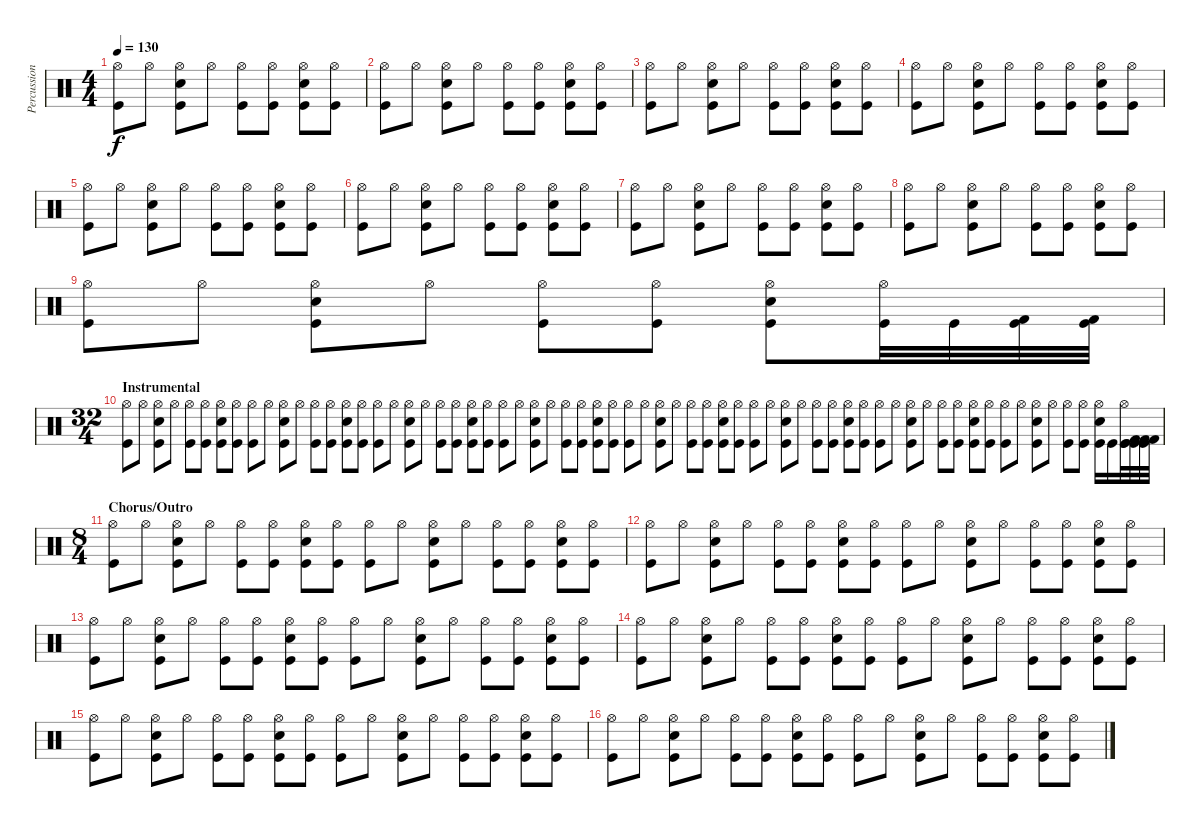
\track ("Percussion" "Percussion") {instrument percussion}
\staff {score}
\articulation defaults
\ts (4 4)
\tempo 130
\clef neutral
\ks c
("Hi-Hat (open)" "Kick (hit)").8{dy f volume 16} "Hi-Hat (open)".8{volume 14} ("Hi-Hat (open)" "Kick (hit)" "Snare (hit) 2").8 "Hi-Hat (open)".8 ("Hi-Hat (open)" "Kick (hit)").8{volume 16} ("Hi-Hat (open)" "Kick (hit)").8{volume 14} ("Hi-Hat (open)" "Kick (hit)" "Snare (hit) 2").8 ("Hi-Hat (open)" "Kick (hit)").8 |
("Hi-Hat (open)" "Kick (hit)").8{volume 16} "Hi-Hat (open)".8{volume 14} ("Hi-Hat (open)" "Kick (hit)" "Snare (hit) 2").8 "Hi-Hat (open)".8 ("Hi-Hat (open)" "Kick (hit)").8{volume 16} ("Hi-Hat (open)" "Kick (hit)").8{volume 14} ("Hi-Hat (open)" "Kick (hit)" "Snare (hit) 2").8 ("Hi-Hat (open)" "Kick (hit)").8 |
("Hi-Hat (open)" "Kick (hit)").8{volume 16} "Hi-Hat (open)".8{volume 14} ("Hi-Hat (open)" "Kick (hit)" "Snare (hit) 2").8 "Hi-Hat (open)".8 ("Hi-Hat (open)" "Kick (hit)").8{volume 16} ("Hi-Hat (open)" "Kick (hit)").8{volume 14} ("Hi-Hat (open)" "Kick (hit)" "Snare (hit) 2").8 ("Hi-Hat (open)" "Kick (hit)").8 |
("Hi-Hat (open)" "Kick (hit)").8{volume 16} "Hi-Hat (open)".8{volume 14} ("Hi-Hat (open)" "Kick (hit)" "Snare (hit) 2").8 "Hi-Hat (open)".8 ("Hi-Hat (open)" "Kick (hit)").8{volume 16} ("Hi-Hat (open)" "Kick (hit)").8{volume 14} ("Hi-Hat (open)" "Kick (hit)" "Snare (hit) 2").8 ("Hi-Hat (open)" "Kick (hit)").8 |
("Hi-Hat (open)" "Kick (hit)").8{volume 16} "Hi-Hat (open)".8{volume 14} ("Hi-Hat (open)" "Kick (hit)" "Snare (hit) 2").8 "Hi-Hat (open)".8 ("Hi-Hat (open)" "Kick (hit)").8{volume 16} ("Hi-Hat (open)" "Kick (hit)").8{volume 14} ("Hi-Hat (open)" "Kick (hit)" "Snare (hit) 2").8 ("Hi-Hat (open)" "Kick (hit)").8 |
("Hi-Hat (open)" "Kick (hit)").8{volume 16} "Hi-Hat (open)".8{volume 14} ("Hi-Hat (open)" "Kick (hit)" "Snare (hit) 2").8 "Hi-Hat (open)".8 ("Hi-Hat (open)" "Kick (hit)").8{volume 16} ("Hi-Hat (open)" "Kick (hit)").8{volume 14} ("Hi-Hat (open)" "Kick (hit)" "Snare (hit) 2").8 ("Hi-Hat (open)" "Kick (hit)").8 |
("Hi-Hat (open)" "Kick (hit)").8{volume 16} "Hi-Hat (open)".8{volume 14} ("Hi-Hat (open)" "Kick (hit)" "Snare (hit) 2").8 "Hi-Hat (open)".8 ("Hi-Hat (open)" "Kick (hit)").8{volume 16} ("Hi-Hat (open)" "Kick (hit)").8{volume 14} ("Hi-Hat (open)" "Kick (hit)" "Snare (hit) 2").8 ("Hi-Hat (open)" "Kick (hit)").8 |
("Hi-Hat (open)" "Kick (hit)").8{volume 16} "Hi-Hat (open)".8{volume 14} ("Hi-Hat (open)" "Kick (hit)" "Snare (hit) 2").8 "Hi-Hat (open)".8 ("Hi-Hat (open)" "Kick (hit)").8{volume 16} ("Hi-Hat (open)" "Kick (hit)").8{volume 14} ("Hi-Hat (open)" "Kick (hit)" "Snare (hit) 2").8 ("Hi-Hat (open)" "Kick (hit)").8 |
("Hi-Hat (open)" "Kick (hit)").8{volume 16} "Hi-Hat (open)".8{volume 14} ("Hi-Hat (open)" "Kick (hit)" "Snare (hit) 2").8 "Hi-Hat (open)".8 ("Hi-Hat (open)" "Kick (hit)").8{volume 16} ("Hi-Hat (open)" "Kick (hit)").8{volume 14} ("Hi-Hat (open)" "Kick (hit)" "Snare (hit) 2").8 ("Hi-Hat (open)" "Kick (hit)").32 "Kick (hit)".32 ("Kick (hit) 2" "Kick (hit)").32 ("Kick (hit) 2" "Kick (hit)").32 |
\ts (32 4)
\section ("" "Instrumental")
("Hi-Hat (open)" "Kick (hit)").8{volume 16} "Hi-Hat (open)".8 ("Hi-Hat (open)" "Kick (hit)" "Snare (hit) 2").8 "Hi-Hat (open)".8 ("Hi-Hat (open)" "Kick (hit)").8 ("Hi-Hat (open)" "Kick (hit)").8 ("Hi-Hat (open)" "Kick (hit)" "Snare (hit) 2").8 ("Hi-Hat (open)" "Kick (hit)").8 ("Hi-Hat (open)" "Kick (hit)").8 "Hi-Hat (open)".8 ("Hi-Hat (open)" "Kick (hit)" "Snare (hit) 2").8 "Hi-Hat (open)".8 ("Hi-Hat (open)" "Kick (hit)").8 ("Hi-Hat (open)" "Kick (hit)").8 ("Hi-Hat (open)" "Kick (hit)" "Snare (hit) 2").8 ("Hi-Hat (open)" "Kick (hit)").8 ("Hi-Hat (open)" "Kick (hit)").8 "Hi-Hat (open)".8 ("Hi-Hat (open)" "Kick (hit)" "Snare (hit) 2").8 "Hi-Hat (open)".8 ("Hi-Hat (open)" "Kick (hit)").8 ("Hi-Hat (open)" "Kick (hit)").8 ("Hi-Hat (open)" "Kick (hit)" "Snare (hit) 2").8 ("Hi-Hat (open)" "Kick (hit)").8 ("Hi-Hat (open)" "Kick (hit)").8 "Hi-Hat (open)".8 ("Hi-Hat (open)" "Kick (hit)" "Snare (hit) 2").8 "Hi-Hat (open)".8 ("Hi-Hat (open)" "Kick (hit)").8 ("Hi-Hat (open)" "Kick (hit)").8 ("Hi-Hat (open)" "Kick (hit)" "Snare (hit) 2").8 ("Hi-Hat (open)" "Kick (hit)").8 ("Hi-Hat (open)" "Kick (hit)").8 "Hi-Hat (open)".8 ("Hi-Hat (open)" "Kick (hit)" "Snare (hit) 2").8 "Hi-Hat (open)".8 ("Hi-Hat (open)" "Kick (hit)").8 ("Hi-Hat (open)" "Kick (hit)").8 ("Hi-Hat (open)" "Kick (hit)" "Snare (hit) 2").8 ("Hi-Hat (open)" "Kick (hit)").8 ("Hi-Hat (open)" "Kick (hit)").8 "Hi-Hat (open)".8 ("Hi-Hat (open)" "Kick (hit)" "Snare (hit) 2").8 "Hi-Hat (open)".8 ("Hi-Hat (open)" "Kick (hit)").8 ("Hi-Hat (open)" "Kick (hit)").8 ("Hi-Hat (open)" "Kick (hit)" "Snare (hit) 2").8 ("Hi-Hat (open)" "Kick (hit)").8 ("Hi-Hat (open)" "Kick (hit)").8 "Hi-Hat (open)".8 ("Hi-Hat (open)" "Kick (hit)" "Snare (hit) 2").8 "Hi-Hat (open)".8 ("Hi-Hat (open)" "Kick (hit)").8 ("Hi-Hat (open)" "Kick (hit)").8 ("Hi-Hat (open)" "Kick (hit)" "Snare (hit) 2").8 ("Hi-Hat (open)" "Kick (hit)").8 ("Hi-Hat (open)" "Kick (hit)").8 "Hi-Hat (open)".8 ("Hi-Hat (open)" "Kick (hit)" "Snare (hit) 2").8 "Hi-Hat (open)".8 ("Hi-Hat (open)" "Kick (hit)").8 ("Hi-Hat (open)" "Kick (hit)").8 ("Hi-Hat (open)" "Kick (hit)" "Snare (hit) 2").16 "Kick (hit)".16 ("Hi-Hat (open)" "Kick (hit)").32 ("Kick (hit) 2" "Kick (hit)").32 ("Kick (hit) 2" "Kick (hit)").32 ("Kick (hit) 2" "Kick (hit)").32 |
\ts (8 4)
\section ("" "Chorus/Outro")
("Hi-Hat (open)" "Kick (hit)").8 "Hi-Hat (open)".8 ("Hi-Hat (open)" "Kick (hit)" "Snare (hit) 2").8 "Hi-Hat (open)".8 ("Hi-Hat (open)" "Kick (hit)").8 ("Hi-Hat (open)" "Kick (hit)").8 ("Hi-Hat (open)" "Kick (hit)" "Snare (hit) 2").8 ("Hi-Hat (open)" "Kick (hit)").8 ("Hi-Hat (open)" "Kick (hit)").8 "Hi-Hat (open)".8 ("Hi-Hat (open)" "Kick (hit)" "Snare (hit) 2").8 "Hi-Hat (open)".8 ("Hi-Hat (open)" "Kick (hit)").8 ("Hi-Hat (open)" "Kick (hit)").8 ("Hi-Hat (open)" "Kick (hit)" "Snare (hit) 2").8 ("Hi-Hat (open)" "Kick (hit)").8 |
("Hi-Hat (open)" "Kick (hit)").8 "Hi-Hat (open)".8 ("Hi-Hat (open)" "Kick (hit)" "Snare (hit) 2").8 "Hi-Hat (open)".8 ("Hi-Hat (open)" "Kick (hit)").8 ("Hi-Hat (open)" "Kick (hit)").8 ("Hi-Hat (open)" "Kick (hit)" "Snare (hit) 2").8 ("Hi-Hat (open)" "Kick (hit)").8 ("Hi-Hat (open)" "Kick (hit)").8 "Hi-Hat (open)".8 ("Hi-Hat (open)" "Kick (hit)" "Snare (hit) 2").8 "Hi-Hat (open)".8 ("Hi-Hat (open)" "Kick (hit)").8 ("Hi-Hat (open)" "Kick (hit)").8 ("Hi-Hat (open)" "Kick (hit)" "Snare (hit) 2").8 ("Hi-Hat (open)" "Kick (hit)").8 |
("Hi-Hat (open)" "Kick (hit)").8 "Hi-Hat (open)".8 ("Hi-Hat (open)" "Kick (hit)" "Snare (hit) 2").8 "Hi-Hat (open)".8 ("Hi-Hat (open)" "Kick (hit)").8 ("Hi-Hat (open)" "Kick (hit)").8 ("Hi-Hat (open)" "Kick (hit)" "Snare (hit) 2").8 ("Hi-Hat (open)" "Kick (hit)").8 ("Hi-Hat (open)" "Kick (hit)").8 "Hi-Hat (open)".8 ("Hi-Hat (open)" "Kick (hit)" "Snare (hit) 2").8 "Hi-Hat (open)".8 ("Hi-Hat (open)" "Kick (hit)").8 ("Hi-Hat (open)" "Kick (hit)").8 ("Hi-Hat (open)" "Kick (hit)" "Snare (hit) 2").8 ("Hi-Hat (open)" "Kick (hit)").8 |
("Hi-Hat (open)" "Kick (hit)").8 "Hi-Hat (open)".8 ("Hi-Hat (open)" "Kick (hit)" "Snare (hit) 2").8 "Hi-Hat (open)".8 ("Hi-Hat (open)" "Kick (hit)").8 ("Hi-Hat (open)" "Kick (hit)").8 ("Hi-Hat (open)" "Kick (hit)" "Snare (hit) 2").8 ("Hi-Hat (open)" "Kick (hit)").8 ("Hi-Hat (open)" "Kick (hit)").8 "Hi-Hat (open)".8 ("Hi-Hat (open)" "Kick (hit)" "Snare (hit) 2").8 "Hi-Hat (open)".8 ("Hi-Hat (open)" "Kick (hit)").8 ("Hi-Hat (open)" "Kick (hit)").8 ("Hi-Hat (open)" "Kick (hit)" "Snare (hit) 2").8 ("Hi-Hat (open)" "Kick (hit)").8 |
("Hi-Hat (open)" "Kick (hit)").8 "Hi-Hat (open)".8 ("Hi-Hat (open)" "Kick (hit)" "Snare (hit) 2").8 "Hi-Hat (open)".8 ("Hi-Hat (open)" "Kick (hit)").8 ("Hi-Hat (open)" "Kick (hit)").8 ("Hi-Hat (open)" "Kick (hit)" "Snare (hit) 2").8 ("Hi-Hat (open)" "Kick (hit)").8 ("Hi-Hat (open)" "Kick (hit)").8 "Hi-Hat (open)".8 ("Hi-Hat (open)" "Kick (hit)" "Snare (hit) 2").8 "Hi-Hat (open)".8 ("Hi-Hat (open)" "Kick (hit)").8 ("Hi-Hat (open)" "Kick (hit)").8 ("Hi-Hat (open)" "Kick (hit)" "Snare (hit) 2").8 ("Hi-Hat (open)" "Kick (hit)").8 |
("Hi-Hat (open)" "Kick (hit)").8 "Hi-Hat (open)".8 ("Hi-Hat (open)" "Kick (hit)" "Snare (hit) 2").8 "Hi-Hat (open)".8 ("Hi-Hat (open)" "Kick (hit)").8 ("Hi-Hat (open)" "Kick (hit)").8 ("Hi-Hat (open)" "Kick (hit)" "Snare (hit) 2").8 ("Hi-Hat (open)" "Kick (hit)").8 ("Hi-Hat (open)" "Kick (hit)").8 "Hi-Hat (open)".8 ("Hi-Hat (open)" "Kick (hit)" "Snare (hit) 2").8 "Hi-Hat (open)".8 ("Hi-Hat (open)" "Kick (hit)").8 ("Hi-Hat (open)" "Kick (hit)").8 ("Hi-Hat (open)" "Kick (hit)" "Snare (hit) 2").8 ("Hi-Hat (open)" "Kick (hit)").8
